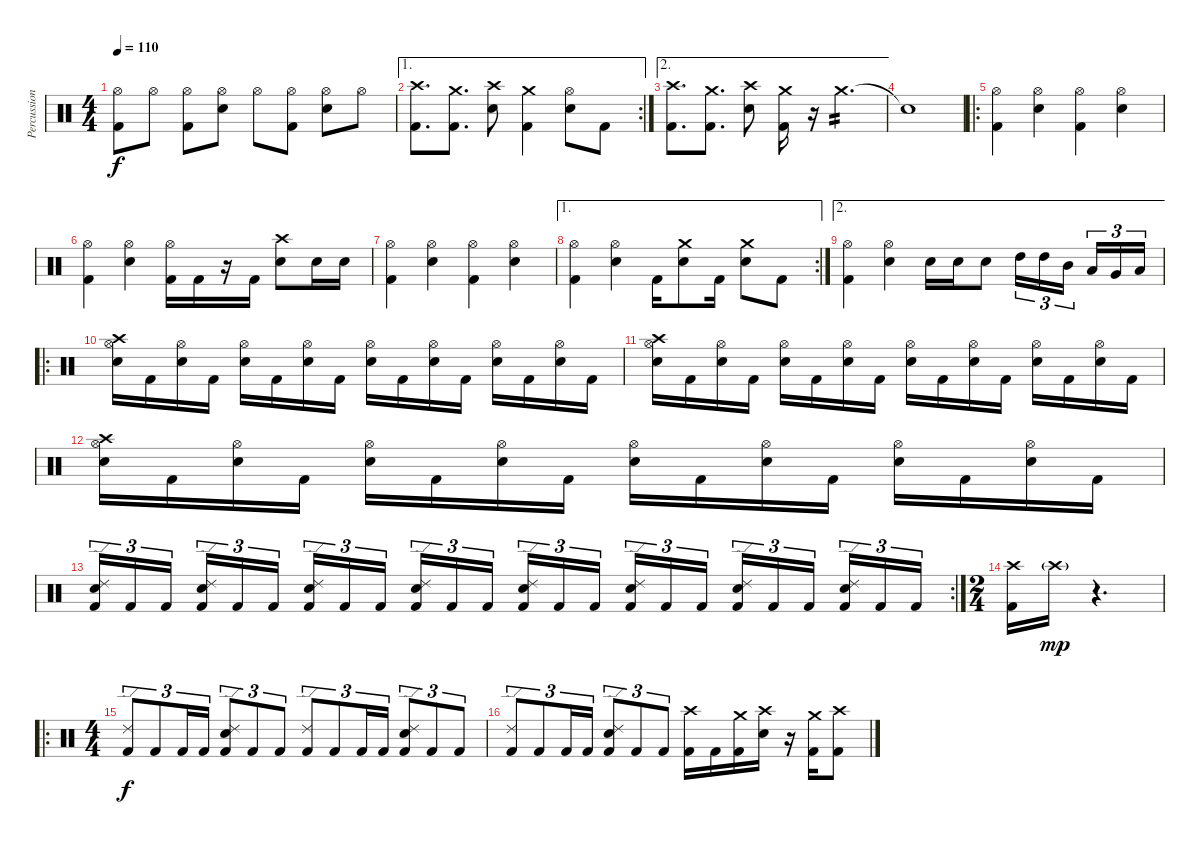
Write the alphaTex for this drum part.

\track ("Percussion" "Percussion") {instrument percussion}
\staff {score}
\articulation defaults
\ts (4 4)
\tempo 110
\clef neutral
\ks c
("Hi-Hat (open)" "Kick (hit) 2").8{dy f} "Hi-Hat (open)".8 ("Hi-Hat (open)" "Kick (hit) 2").8 ("Hi-Hat (open)" "Snare (hit) 2").8 "Hi-Hat (open)".8 ("Hi-Hat (open)" "Kick (hit) 2").8 ("Hi-Hat (open)" "Snare (hit) 2").8 "Hi-Hat (open)".8 |
\ae 1
\rc 2
("Crash high (hit)" "Kick (hit) 2").8{d} ("Crash medium (hit)" "Kick (hit) 2").8{d} ("Crash high (hit)" "Snare (hit) 2").8 ("Crash medium (hit)" "Kick (hit) 2").4 ("Hi-Hat (open)" "Snare (hit) 2").8 "Kick (hit) 2".8 |
\ae 2
("Crash high (hit)" "Kick (hit) 2").8{d} ("Crash medium (hit)" "Kick (hit) 2").8{d} ("Crash high (hit)" "Snare (hit) 2").8 ("Crash medium (hit)" "Kick (hit) 2").16 r.16{volume 3} "Crash medium (hit)".4{d tp 2 volume 16} |
"Snare (hit)"{t}.1 |
\ro
("Hi-Hat (open)" "Kick (hit) 2").4 ("Hi-Hat (open)" "Snare (hit) 2").4 ("Hi-Hat (open)" "Kick (hit) 2").4 ("Hi-Hat (open)" "Snare (hit) 2").4 |
("Hi-Hat (open)" "Kick (hit) 2").4 ("Hi-Hat (open)" "Snare (hit) 2").4 ("Hi-Hat (open)" "Kick (hit) 2").16 "Kick (hit) 2".16 r.16 "Kick (hit) 2".16 ("Crash high (hit)" "Snare (hit) 2").8 "Snare (hit) 2".16 "Snare (hit) 2".16 |
("Hi-Hat (open)" "Kick (hit) 2").4 ("Hi-Hat (open)" "Snare (hit) 2").4 ("Hi-Hat (open)" "Kick (hit) 2").4 ("Hi-Hat (open)" "Snare (hit) 2").4 |
\ae 1
\rc 2
("Hi-Hat (open)" "Kick (hit) 2").4 ("Hi-Hat (open)" "Snare (hit) 2").4 "Kick (hit) 2".16 ("Crash medium (hit)" "Snare (hit) 2").8 "Kick (hit) 2".16 ("Crash medium (hit)" "Snare (hit) 2").8 "Kick (hit) 2".8 |
\ae 2
("Hi-Hat (open)" "Kick (hit) 2").4 ("Hi-Hat (open)" "Snare (hit) 2").4 "Snare (hit) 2".16 "Snare (hit) 2".16 "Snare (hit) 2".8 "High Tom (hit)".16{tu (3 2)} "High Tom (hit)".16{tu (3 2)} "Mid Tom (hit)".16{tu (3 2) beam splitsecondary} "Low Tom (hit)".16{tu (3 2)} "Very Low Tom (hit)".16{tu (3 2)} "Low Floor Tom (hit)".16{tu (3 2)} |
\ro
("Crash high (hit)" "Hi-Hat (open)" "Snare (hit) 2").16 "Kick (hit) 2".16 ("Hi-Hat (open)" "Snare (hit) 2").16 "Kick (hit) 2".16 ("Hi-Hat (open)" "Snare (hit) 2").16 "Kick (hit) 2".16 ("Hi-Hat (open)" "Snare (hit) 2").16 "Kick (hit) 2".16 ("Hi-Hat (open)" "Snare (hit) 2").16 "Kick (hit) 2".16 ("Hi-Hat (open)" "Snare (hit) 2").16 "Kick (hit) 2".16 ("Hi-Hat (open)" "Snare (hit) 2").16 "Kick (hit) 2".16 ("Hi-Hat (open)" "Snare (hit) 2").16 "Kick (hit) 2".16 |
("Crash high (hit)" "Hi-Hat (open)" "Snare (hit) 2").16 "Kick (hit) 2".16 ("Hi-Hat (open)" "Snare (hit) 2").16 "Kick (hit) 2".16 ("Hi-Hat (open)" "Snare (hit) 2").16 "Kick (hit) 2".16 ("Hi-Hat (open)" "Snare (hit) 2").16 "Kick (hit) 2".16 ("Hi-Hat (open)" "Snare (hit) 2").16 "Kick (hit) 2".16 ("Hi-Hat (open)" "Snare (hit) 2").16 "Kick (hit) 2".16 ("Hi-Hat (open)" "Snare (hit) 2").16 "Kick (hit) 2".16 ("Hi-Hat (open)" "Snare (hit) 2").16 "Kick (hit) 2".16 |
("Crash high (hit)" "Hi-Hat (open)" "Snare (hit) 2").16 "Kick (hit) 2".16 ("Hi-Hat (open)" "Snare (hit) 2").16 "Kick (hit) 2".16 ("Hi-Hat (open)" "Snare (hit) 2").16 "Kick (hit) 2".16 ("Hi-Hat (open)" "Snare (hit) 2").16 "Kick (hit) 2".16 ("Hi-Hat (open)" "Snare (hit) 2").16 "Kick (hit) 2".16 ("Hi-Hat (open)" "Snare (hit) 2").16 "Kick (hit) 2".16 ("Hi-Hat (open)" "Snare (hit) 2").16 "Kick (hit) 2".16 ("Hi-Hat (open)" "Snare (hit) 2").16 "Kick (hit) 2".16 |
\rc 2
("Ride (edge) 2" "Snare (hit) 2" "Kick (hit) 2").16{tu (3 2)} "Kick (hit) 2".16{tu (3 2)} "Kick (hit) 2".16{tu (3 2) beam splitsecondary} ("Ride (edge) 2" "Snare (hit) 2" "Kick (hit) 2").16{tu (3 2)} "Kick (hit) 2".16{tu (3 2)} "Kick (hit) 2".16{tu (3 2)} ("Ride (edge) 2" "Snare (hit) 2" "Kick (hit) 2").16{tu (3 2)} "Kick (hit) 2".16{tu (3 2)} "Kick (hit) 2".16{tu (3 2) beam splitsecondary} ("Ride (edge) 2" "Snare (hit) 2" "Kick (hit) 2").16{tu (3 2)} "Kick (hit) 2".16{tu (3 2)} "Kick (hit) 2".16{tu (3 2)} ("Ride (edge) 2" "Snare (hit) 2" "Kick (hit) 2").16{tu (3 2)} "Kick (hit) 2".16{tu (3 2)} "Kick (hit) 2".16{tu (3 2) beam splitsecondary} ("Ride (edge) 2" "Snare (hit) 2" "Kick (hit) 2").16{tu (3 2)} "Kick (hit) 2".16{tu (3 2)} "Kick (hit) 2".16{tu (3 2)} ("Ride (edge) 2" "Snare (hit) 2" "Kick (hit) 2").16{tu (3 2)} "Kick (hit) 2".16{tu (3 2)} "Kick (hit) 2".16{tu (3 2) beam splitsecondary} ("Ride (edge) 2" "Snare (hit) 2" "Kick (hit) 2").16{tu (3 2)} "Kick (hit) 2".16{tu (3 2)} "Kick (hit) 2".16{tu (3 2)} |
\ts (2 4)
("Crash high (hit)" "Kick (hit) 2").16 "Crash high (hit)"{g}.16{dy mp} r.4{d} |
\ro
\ts (4 4)
("Ride (edge) 2" "Kick (hit) 2").8{tu (3 2) dy f} "Kick (hit) 2".8{tu (3 2)} "Kick (hit) 2".16{tu (3 2)} "Kick (hit) 2".16{tu (3 2)} ("Ride (edge) 2" "Snare (hit) 2" "Kick (hit) 2").8{tu (3 2)} "Kick (hit) 2".8{tu (3 2)} "Kick (hit) 2".8{tu (3 2)} ("Ride (edge) 2" "Kick (hit) 2").8{tu (3 2)} "Kick (hit) 2".8{tu (3 2)} "Kick (hit) 2".16{tu (3 2)} "Kick (hit) 2".16{tu (3 2)} ("Ride (edge) 2" "Snare (hit) 2" "Kick (hit) 2").8{tu (3 2)} "Kick (hit) 2".8{tu (3 2)} "Kick (hit) 2".8{tu (3 2)} |
("Ride (edge) 2" "Kick (hit) 2").8{tu (3 2)} "Kick (hit) 2".8{tu (3 2)} "Kick (hit) 2".16{tu (3 2)} "Kick (hit) 2".16{tu (3 2)} ("Ride (edge) 2" "Snare (hit) 2" "Kick (hit) 2").8{tu (3 2)} "Kick (hit) 2".8{tu (3 2)} "Kick (hit) 2".8{tu (3 2)} ("Crash high (hit)" "Kick (hit) 2").16 "Kick (hit) 2".16 ("Crash medium (hit)" "Kick (hit) 2").16 ("Crash high (hit)" "Snare (hit) 2").16 r.16 ("Crash medium (hit)" "Kick (hit) 2").16 ("Crash high (hit)" "Kick (hit) 2").8
